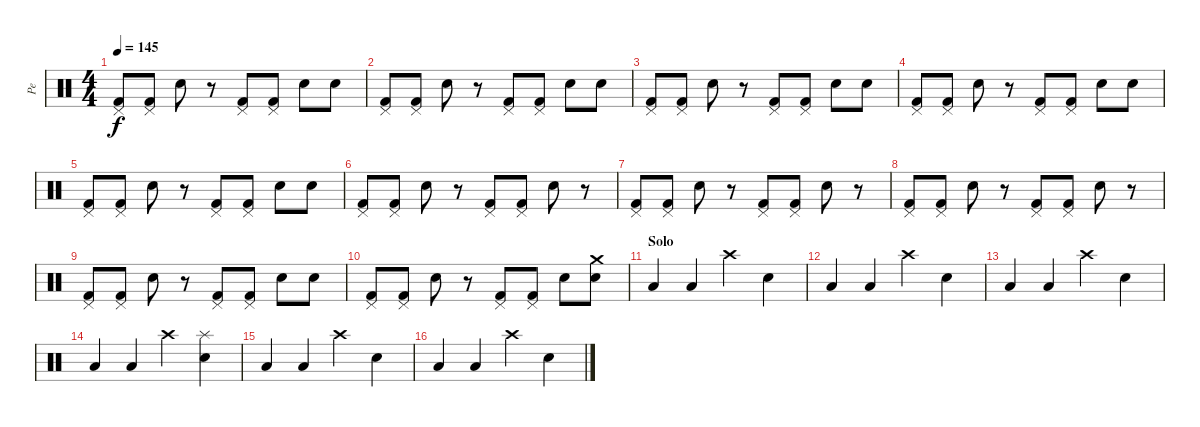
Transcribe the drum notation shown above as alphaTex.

\track ("Pe" "Pe") {instrument percussion}
\staff {score}
\articulation defaults
\ts (4 4)
\tempo 145
\clef neutral
\ks c
("Pedal Hi-Hat (hit)" "Kick (hit) 2").8{dy f} ("Pedal Hi-Hat (hit)" "Kick (hit) 2").8 "Electric Snare (hit)".8 r.8 ("Pedal Hi-Hat (hit)" "Kick (hit) 2").8 ("Pedal Hi-Hat (hit)" "Kick (hit) 2").8 "Electric Snare (hit)".8 "Electric Snare (hit)".8 |
("Pedal Hi-Hat (hit)" "Kick (hit) 2").8 ("Pedal Hi-Hat (hit)" "Kick (hit) 2").8 "Electric Snare (hit)".8 r.8 ("Pedal Hi-Hat (hit)" "Kick (hit) 2").8 ("Pedal Hi-Hat (hit)" "Kick (hit) 2").8 "Electric Snare (hit)".8 "Electric Snare (hit)".8 |
("Pedal Hi-Hat (hit)" "Kick (hit) 2").8 ("Pedal Hi-Hat (hit)" "Kick (hit) 2").8 "Electric Snare (hit)".8 r.8 ("Pedal Hi-Hat (hit)" "Kick (hit) 2").8 ("Pedal Hi-Hat (hit)" "Kick (hit) 2").8 "Electric Snare (hit)".8 "Electric Snare (hit)".8 |
("Pedal Hi-Hat (hit)" "Kick (hit) 2").8 ("Pedal Hi-Hat (hit)" "Kick (hit) 2").8 "Electric Snare (hit)".8 r.8 ("Pedal Hi-Hat (hit)" "Kick (hit) 2").8 ("Pedal Hi-Hat (hit)" "Kick (hit) 2").8 "Electric Snare (hit)".8 "Electric Snare (hit)".8 |
("Pedal Hi-Hat (hit)" "Kick (hit) 2").8 ("Pedal Hi-Hat (hit)" "Kick (hit) 2").8 "Electric Snare (hit)".8 r.8 ("Pedal Hi-Hat (hit)" "Kick (hit) 2").8 ("Pedal Hi-Hat (hit)" "Kick (hit) 2").8 "Electric Snare (hit)".8 "Electric Snare (hit)".8 |
("Pedal Hi-Hat (hit)" "Kick (hit) 2").8 ("Pedal Hi-Hat (hit)" "Kick (hit) 2").8 "Electric Snare (hit)".8 r.8 ("Pedal Hi-Hat (hit)" "Kick (hit) 2").8 ("Pedal Hi-Hat (hit)" "Kick (hit) 2").8 "Electric Snare (hit)".8 r.8 |
("Pedal Hi-Hat (hit)" "Kick (hit) 2").8 ("Pedal Hi-Hat (hit)" "Kick (hit) 2").8 "Electric Snare (hit)".8 r.8 ("Pedal Hi-Hat (hit)" "Kick (hit) 2").8 ("Pedal Hi-Hat (hit)" "Kick (hit) 2").8 "Electric Snare (hit)".8 r.8 |
("Pedal Hi-Hat (hit)" "Kick (hit) 2").8 ("Pedal Hi-Hat (hit)" "Kick (hit) 2").8 "Electric Snare (hit)".8 r.8 ("Pedal Hi-Hat (hit)" "Kick (hit) 2").8 ("Pedal Hi-Hat (hit)" "Kick (hit) 2").8 "Electric Snare (hit)".8 r.8 |
("Pedal Hi-Hat (hit)" "Kick (hit) 2").8 ("Pedal Hi-Hat (hit)" "Kick (hit) 2").8 "Electric Snare (hit)".8 r.8 ("Pedal Hi-Hat (hit)" "Kick (hit) 2").8 ("Pedal Hi-Hat (hit)" "Kick (hit) 2").8 "Electric Snare (hit)".8 "Electric Snare (hit)".8 |
("Pedal Hi-Hat (hit)" "Kick (hit) 2").8 ("Pedal Hi-Hat (hit)" "Kick (hit) 2").8 "Electric Snare (hit)".8 r.8 ("Pedal Hi-Hat (hit)" "Kick (hit) 2").8 ("Pedal Hi-Hat (hit)" "Kick (hit) 2").8 "Electric Snare (hit)".8 ("Crash medium (hit)" "Electric Snare (hit)").8 |
\section ("" "Solo")
"Low Tom (hit)".4 "Low Floor Tom (hit)".4 "Crash high (hit)".4 "Electric Snare (hit)".4 |
"Low Tom (hit)".4 "Low Floor Tom (hit)".4 "Crash high (hit)".4 "Electric Snare (hit)".4 |
"Low Tom (hit)".4 "Low Floor Tom (hit)".4 "Crash high (hit)".4 "Electric Snare (hit)".4 |
"Low Tom (hit)".4 "Low Floor Tom (hit)".4 "Crash high (hit)".4 ("Splash (hit)" "Electric Snare (hit)").4 |
"Low Tom (hit)".4 "Low Floor Tom (hit)".4 "Crash high (hit)".4 "Electric Snare (hit)".4 |
"Low Tom (hit)".4 "Low Floor Tom (hit)".4 "Crash high (hit)".4 "Electric Snare (hit)".4
